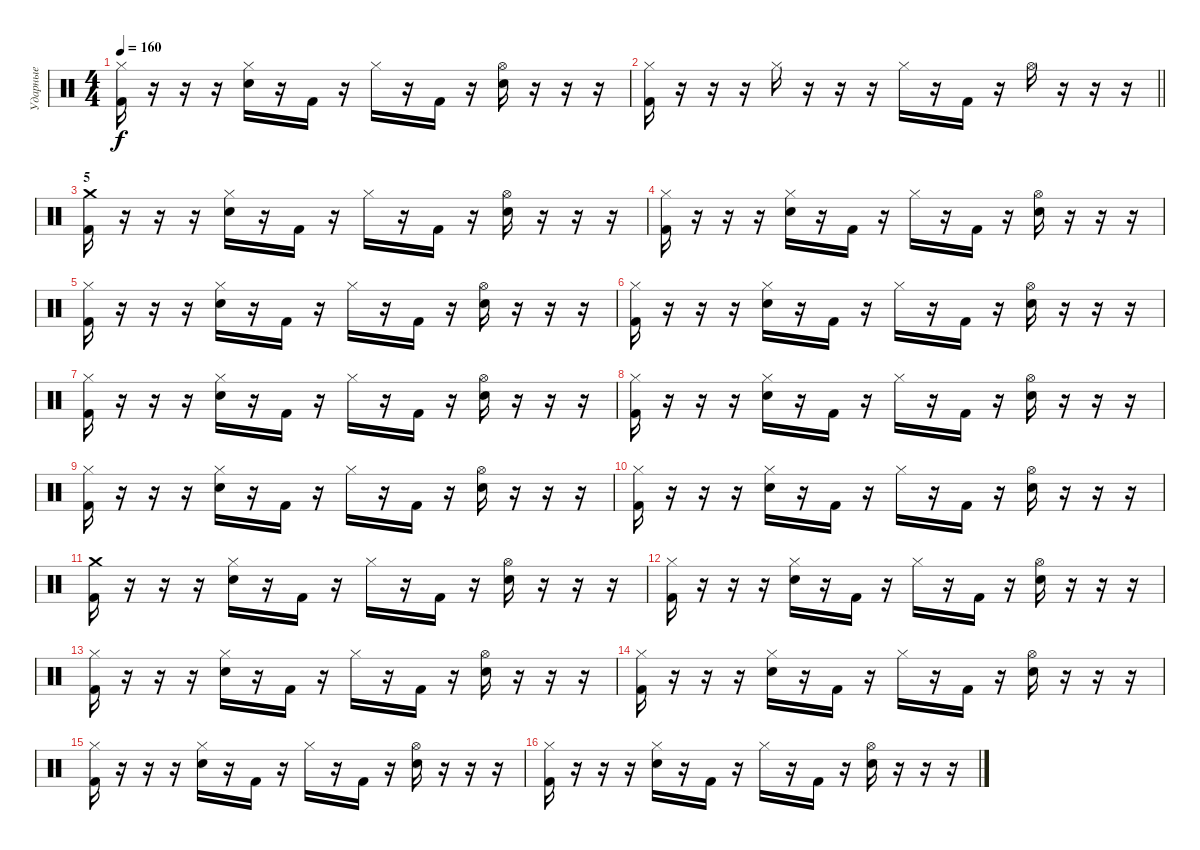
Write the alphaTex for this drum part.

\track ("Ударные" "Ударные") {instrument percussion}
\staff {score}
\articulation defaults
\ts (4 4)
\tempo 160
\clef neutral
\ks c
("Hi-Hat (closed)" "Kick (hit) 2").16{dy f} r.16 r.16 r.16 ("Hi-Hat (closed)" "Electric Snare (hit)").16 r.16 "Kick (hit) 2".16 r.16 "Hi-Hat (closed)".16 r.16 "Kick (hit) 2".16 r.16 ("Hi-Hat (open)" "Electric Snare (hit)").16 r.16 r.16 r.16 |
\barLineRight lightlight
("Hi-Hat (closed)" "Kick (hit) 2").16 r.16 r.16 r.16 "Hi-Hat (closed)".16 r.16 r.16 r.16 "Hi-Hat (closed)".16 r.16 "Kick (hit) 2".16 r.16 "Hi-Hat (open)".16 r.16 r.16 r.16 |
\section ("" "5")
("Crash medium (hit)" "Kick (hit) 2").16 r.16 r.16 r.16 ("Hi-Hat (closed)" "Electric Snare (hit)").16 r.16 "Kick (hit) 2".16 r.16 "Hi-Hat (closed)".16 r.16 "Kick (hit) 2".16 r.16 ("Hi-Hat (open)" "Electric Snare (hit)").16 r.16 r.16 r.16 |
("Hi-Hat (closed)" "Kick (hit) 2").16 r.16 r.16 r.16 ("Hi-Hat (closed)" "Electric Snare (hit)").16 r.16 "Kick (hit) 2".16 r.16 "Hi-Hat (closed)".16 r.16 "Kick (hit) 2".16 r.16 ("Hi-Hat (open)" "Electric Snare (hit)").16 r.16 r.16 r.16 |
("Hi-Hat (closed)" "Kick (hit) 2").16 r.16 r.16 r.16 ("Hi-Hat (closed)" "Electric Snare (hit)").16 r.16 "Kick (hit) 2".16 r.16 "Hi-Hat (closed)".16 r.16 "Kick (hit) 2".16 r.16 ("Hi-Hat (open)" "Electric Snare (hit)").16 r.16 r.16 r.16 |
("Hi-Hat (closed)" "Kick (hit) 2").16 r.16 r.16 r.16 ("Hi-Hat (closed)" "Electric Snare (hit)").16 r.16 "Kick (hit) 2".16 r.16 "Hi-Hat (closed)".16 r.16 "Kick (hit) 2".16 r.16 ("Hi-Hat (open)" "Electric Snare (hit)").16 r.16 r.16 r.16 |
("Hi-Hat (closed)" "Kick (hit) 2").16 r.16 r.16 r.16 ("Hi-Hat (closed)" "Electric Snare (hit)").16 r.16 "Kick (hit) 2".16 r.16 "Hi-Hat (closed)".16 r.16 "Kick (hit) 2".16 r.16 ("Hi-Hat (open)" "Electric Snare (hit)").16 r.16 r.16 r.16 |
("Hi-Hat (closed)" "Kick (hit) 2").16 r.16 r.16 r.16 ("Hi-Hat (closed)" "Electric Snare (hit)").16 r.16 "Kick (hit) 2".16 r.16 "Hi-Hat (closed)".16 r.16 "Kick (hit) 2".16 r.16 ("Hi-Hat (open)" "Electric Snare (hit)").16 r.16 r.16 r.16 |
("Hi-Hat (closed)" "Kick (hit) 2").16 r.16 r.16 r.16 ("Hi-Hat (closed)" "Electric Snare (hit)").16 r.16 "Kick (hit) 2".16 r.16 "Hi-Hat (closed)".16 r.16 "Kick (hit) 2".16 r.16 ("Hi-Hat (open)" "Electric Snare (hit)").16 r.16 r.16 r.16 |
("Hi-Hat (closed)" "Kick (hit) 2").16 r.16 r.16 r.16 ("Hi-Hat (closed)" "Electric Snare (hit)").16 r.16 "Kick (hit) 2".16 r.16 "Hi-Hat (closed)".16 r.16 "Kick (hit) 2".16 r.16 ("Hi-Hat (open)" "Electric Snare (hit)").16 r.16 r.16 r.16 |
("Crash medium (hit)" "Kick (hit) 2").16 r.16 r.16 r.16 ("Hi-Hat (closed)" "Electric Snare (hit)").16 r.16 "Kick (hit) 2".16 r.16 "Hi-Hat (closed)".16 r.16 "Kick (hit) 2".16 r.16 ("Hi-Hat (open)" "Electric Snare (hit)").16 r.16 r.16 r.16 |
("Hi-Hat (closed)" "Kick (hit) 2").16 r.16 r.16 r.16 ("Hi-Hat (closed)" "Electric Snare (hit)").16 r.16 "Kick (hit) 2".16 r.16 "Hi-Hat (closed)".16 r.16 "Kick (hit) 2".16 r.16 ("Hi-Hat (open)" "Electric Snare (hit)").16 r.16 r.16 r.16 |
("Hi-Hat (closed)" "Kick (hit) 2").16 r.16 r.16 r.16 ("Hi-Hat (closed)" "Electric Snare (hit)").16 r.16 "Kick (hit) 2".16 r.16 "Hi-Hat (closed)".16 r.16 "Kick (hit) 2".16 r.16 ("Hi-Hat (open)" "Electric Snare (hit)").16 r.16 r.16 r.16 |
("Hi-Hat (closed)" "Kick (hit) 2").16 r.16 r.16 r.16 ("Hi-Hat (closed)" "Electric Snare (hit)").16 r.16 "Kick (hit) 2".16 r.16 "Hi-Hat (closed)".16 r.16 "Kick (hit) 2".16 r.16 ("Hi-Hat (open)" "Electric Snare (hit)").16 r.16 r.16 r.16 |
("Hi-Hat (closed)" "Kick (hit) 2").16 r.16 r.16 r.16 ("Hi-Hat (closed)" "Electric Snare (hit)").16 r.16 "Kick (hit) 2".16 r.16 "Hi-Hat (closed)".16 r.16 "Kick (hit) 2".16 r.16 ("Hi-Hat (open)" "Electric Snare (hit)").16 r.16 r.16 r.16 |
("Hi-Hat (closed)" "Kick (hit) 2").16 r.16 r.16 r.16 ("Hi-Hat (closed)" "Electric Snare (hit)").16 r.16 "Kick (hit) 2".16 r.16 "Hi-Hat (closed)".16 r.16 "Kick (hit) 2".16 r.16 ("Hi-Hat (open)" "Electric Snare (hit)").16 r.16 r.16 r.16
